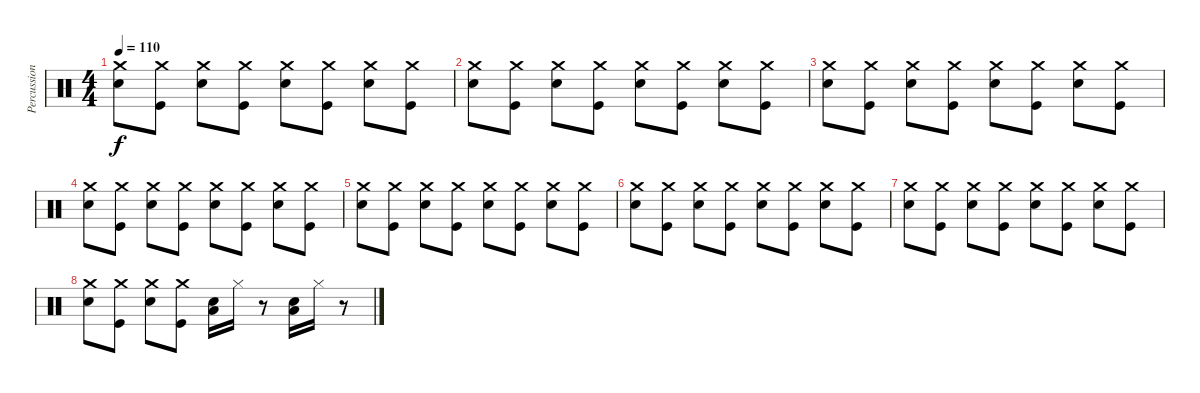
\track ("Percussion" "Percussion") {instrument percussion}
\staff {score}
\articulation defaults
\ts (4 4)
\tempo 110
\clef neutral
\ks c
("Crash medium (hit)" "Electric Snare (hit)").8{dy f} ("Crash medium (hit)" "Kick (hit)").8 ("Crash medium (hit)" "Electric Snare (hit)").8 ("Crash medium (hit)" "Kick (hit)").8 ("Crash medium (hit)" "Electric Snare (hit)").8 ("Crash medium (hit)" "Kick (hit)").8 ("Crash medium (hit)" "Electric Snare (hit)").8 ("Crash medium (hit)" "Kick (hit)").8 |
("Crash medium (hit)" "Electric Snare (hit)").8 ("Crash medium (hit)" "Kick (hit)").8 ("Crash medium (hit)" "Electric Snare (hit)").8 ("Crash medium (hit)" "Kick (hit)").8 ("Crash medium (hit)" "Electric Snare (hit)").8 ("Crash medium (hit)" "Kick (hit)").8 ("Crash medium (hit)" "Electric Snare (hit)").8 ("Crash medium (hit)" "Kick (hit)").8 |
("Crash medium (hit)" "Electric Snare (hit)").8 ("Crash medium (hit)" "Kick (hit)").8 ("Crash medium (hit)" "Electric Snare (hit)").8 ("Crash medium (hit)" "Kick (hit)").8 ("Crash medium (hit)" "Electric Snare (hit)").8 ("Crash medium (hit)" "Kick (hit)").8 ("Crash medium (hit)" "Electric Snare (hit)").8 ("Crash medium (hit)" "Kick (hit)").8 |
("Crash medium (hit)" "Electric Snare (hit)").8 ("Crash medium (hit)" "Kick (hit)").8 ("Crash medium (hit)" "Electric Snare (hit)").8 ("Crash medium (hit)" "Kick (hit)").8 ("Crash medium (hit)" "Electric Snare (hit)").8 ("Crash medium (hit)" "Kick (hit)").8 ("Crash medium (hit)" "Electric Snare (hit)").8 ("Crash medium (hit)" "Kick (hit)").8 |
("Crash medium (hit)" "Electric Snare (hit)").8 ("Crash medium (hit)" "Kick (hit)").8 ("Crash medium (hit)" "Electric Snare (hit)").8 ("Crash medium (hit)" "Kick (hit)").8 ("Crash medium (hit)" "Electric Snare (hit)").8 ("Crash medium (hit)" "Kick (hit)").8 ("Crash medium (hit)" "Electric Snare (hit)").8 ("Crash medium (hit)" "Kick (hit)").8 |
("Crash medium (hit)" "Electric Snare (hit)").8 ("Crash medium (hit)" "Kick (hit)").8 ("Crash medium (hit)" "Electric Snare (hit)").8 ("Crash medium (hit)" "Kick (hit)").8 ("Crash medium (hit)" "Electric Snare (hit)").8 ("Crash medium (hit)" "Kick (hit)").8 ("Crash medium (hit)" "Electric Snare (hit)").8 ("Crash medium (hit)" "Kick (hit)").8 |
("Crash medium (hit)" "Electric Snare (hit)").8 ("Crash medium (hit)" "Kick (hit)").8 ("Crash medium (hit)" "Electric Snare (hit)").8 ("Crash medium (hit)" "Kick (hit)").8 ("Crash medium (hit)" "Electric Snare (hit)").8 ("Crash medium (hit)" "Kick (hit)").8 ("Crash medium (hit)" "Electric Snare (hit)").8 ("Crash medium (hit)" "Kick (hit)").8 |
("Crash medium (hit)" "Electric Snare (hit)").8 ("Crash medium (hit)" "Kick (hit)").8 ("Crash medium (hit)" "Electric Snare (hit)").8 ("Crash medium (hit)" "Kick (hit)").8 ("Electric Snare (hit)" "Low Floor Tom (hit)").16 "Hi-Hat (closed)".16 r.8 ("Low Floor Tom (hit)" "Electric Snare (hit)").16 "Hi-Hat (closed)".16 r.8
